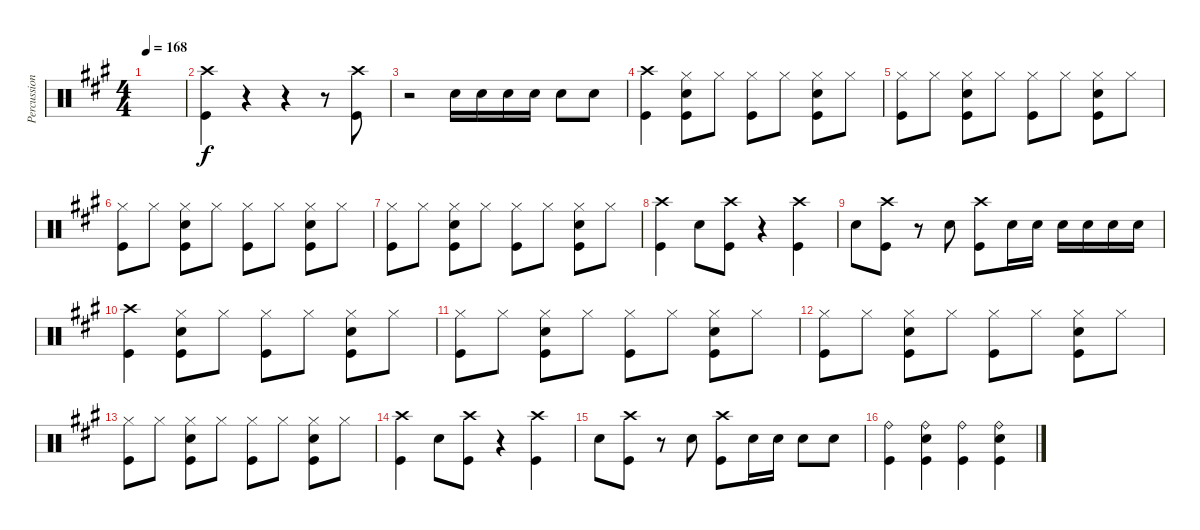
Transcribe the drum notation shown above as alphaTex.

\track ("Percussion" "Percussion") {instrument percussion}
\staff {score}
\articulation defaults
\ts (4 4)
\tempo 168
\clef neutral
\ks a
|
("Crash high (hit)" "Kick (hit)").4 r.4 r.4 r.8 ("Crash high (hit)" "Kick (hit)").8 |
r.2 "Snare (hit) 2".16 "Snare (hit) 2".16 "Snare (hit) 2".16 "Snare (hit) 2".16 "Snare (hit) 2".8 "Snare (hit) 2".8 |
("Crash high (hit)" "Kick (hit)").4 ("Hi-Hat (closed)" "Snare (hit) 2" "Kick (hit)").8 "Hi-Hat (closed)".8 ("Hi-Hat (closed)" "Kick (hit)").8 "Hi-Hat (closed)".8 ("Hi-Hat (closed)" "Snare (hit) 2" "Kick (hit)").8 "Hi-Hat (closed)".8 |
("Hi-Hat (closed)" "Kick (hit)").8 "Hi-Hat (closed)".8 ("Hi-Hat (closed)" "Snare (hit) 2" "Kick (hit)").8 "Hi-Hat (closed)".8 ("Hi-Hat (closed)" "Kick (hit)").8 "Hi-Hat (closed)".8 ("Hi-Hat (closed)" "Snare (hit) 2" "Kick (hit)").8 "Hi-Hat (closed)".8 |
("Hi-Hat (closed)" "Kick (hit)").8 "Hi-Hat (closed)".8 ("Hi-Hat (closed)" "Snare (hit) 2" "Kick (hit)").8 "Hi-Hat (closed)".8 ("Hi-Hat (closed)" "Kick (hit)").8 "Hi-Hat (closed)".8 ("Hi-Hat (closed)" "Snare (hit) 2" "Kick (hit)").8 "Hi-Hat (closed)".8 |
("Hi-Hat (closed)" "Kick (hit)").8 "Hi-Hat (closed)".8 ("Hi-Hat (closed)" "Snare (hit) 2" "Kick (hit)").8 "Hi-Hat (closed)".8 ("Hi-Hat (closed)" "Kick (hit)").8 "Hi-Hat (closed)".8 ("Hi-Hat (closed)" "Snare (hit) 2" "Kick (hit)").8 "Hi-Hat (closed)".8 |
("Crash high (hit)" "Kick (hit)").4 "Snare (hit) 2".8 ("Crash high (hit)" "Kick (hit)").8 r.4 ("Crash high (hit)" "Kick (hit)").4 |
"Snare (hit) 2".8 ("Crash high (hit)" "Kick (hit)").8 r.8 "Snare (hit) 2".8 ("Crash high (hit)" "Kick (hit)").8 "Snare (hit) 2".16 "Snare (hit) 2".16 "Snare (hit) 2".16 "Snare (hit) 2".16 "Snare (hit) 2".16 "Snare (hit) 2".16 |
("Crash high (hit)" "Kick (hit)").4 ("Hi-Hat (closed)" "Snare (hit) 2" "Kick (hit)").8 "Hi-Hat (closed)".8 ("Hi-Hat (closed)" "Kick (hit)").8 "Hi-Hat (closed)".8 ("Hi-Hat (closed)" "Snare (hit) 2" "Kick (hit)").8 "Hi-Hat (closed)".8 |
("Hi-Hat (closed)" "Kick (hit)").8 "Hi-Hat (closed)".8 ("Hi-Hat (closed)" "Snare (hit) 2" "Kick (hit)").8 "Hi-Hat (closed)".8 ("Hi-Hat (closed)" "Kick (hit)").8 "Hi-Hat (closed)".8 ("Hi-Hat (closed)" "Snare (hit) 2" "Kick (hit)").8 "Hi-Hat (closed)".8 |
("Hi-Hat (closed)" "Kick (hit)").8 "Hi-Hat (closed)".8 ("Hi-Hat (closed)" "Snare (hit) 2" "Kick (hit)").8 "Hi-Hat (closed)".8 ("Hi-Hat (closed)" "Kick (hit)").8 "Hi-Hat (closed)".8 ("Hi-Hat (closed)" "Snare (hit) 2" "Kick (hit)").8 "Hi-Hat (closed)".8 |
("Hi-Hat (closed)" "Kick (hit)").8 "Hi-Hat (closed)".8 ("Hi-Hat (closed)" "Snare (hit) 2" "Kick (hit)").8 "Hi-Hat (closed)".8 ("Hi-Hat (closed)" "Kick (hit)").8 "Hi-Hat (closed)".8 ("Hi-Hat (closed)" "Snare (hit) 2" "Kick (hit)").8 "Hi-Hat (closed)".8 |
("Crash high (hit)" "Kick (hit)").4 "Snare (hit) 2".8 ("Crash high (hit)" "Kick (hit)").8 r.4 ("Crash high (hit)" "Kick (hit)").4 |
"Snare (hit) 2".8 ("Crash high (hit)" "Kick (hit)").8 r.8 "Snare (hit) 2".8 ("Crash high (hit)" "Kick (hit)").8 "Snare (hit) 2".16 "Snare (hit) 2".16 "Snare (hit) 2".8 "Snare (hit) 2".8 |
("Ride (bell)" "Kick (hit)").4 ("Ride (bell)" "Snare (hit) 2" "Kick (hit)").4 ("Ride (bell)" "Kick (hit)").4 ("Ride (bell)" "Snare (hit) 2" "Kick (hit)").4
